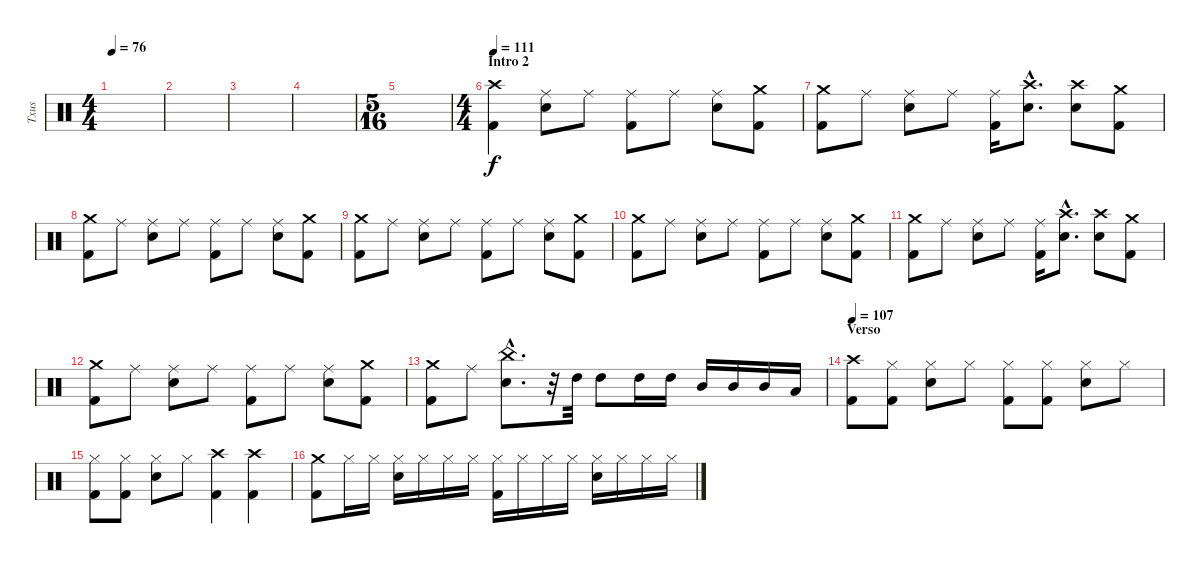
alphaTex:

\track ("Txus" "Txus") {instrument percussion}
\staff {score}
\articulation defaults
\ts (4 4)
\tempo 76
\clef neutral
\ks c
|
|
|
|
\ts (5 16)
|
\ts (4 4)
\section ("" "Intro 2")
\tempo 111
("Kick (hit) 2" "Crash high (hit)").4 ("Electric Snare (hit)" "Ride (middle)").8 "Ride (middle)".8 ("Kick (hit) 2" "Ride (middle)").8 "Ride (middle)".8 ("Electric Snare (hit)" "Ride (middle)").8 ("Kick (hit) 2" "Crash medium (hit)").8 |
("Kick (hit) 2" "Crash medium (hit)").8 "Ride (middle)".8 ("Electric Snare (hit)" "Ride (middle)").8 "Ride (middle)".8 ("Kick (hit) 2" "Ride (middle)").16 ("Electric Snare (hit)"{hac} "Crash high (hit)"{hac}).8{d} ("Electric Snare (hit)" "Crash high (hit)").8 ("Kick (hit) 2" "Crash medium (hit)").8 |
("Kick (hit) 2" "Crash medium (hit)").8 "Ride (middle)".8 ("Electric Snare (hit)" "Ride (middle)").8 "Ride (middle)".8 ("Kick (hit) 2" "Ride (middle)").8 "Ride (middle)".8 ("Electric Snare (hit)" "Ride (middle)").8 ("Kick (hit) 2" "Crash medium (hit)").8 |
("Kick (hit) 2" "Crash medium (hit)").8 "Ride (middle)".8 ("Electric Snare (hit)" "Ride (middle)").8 "Ride (middle)".8 ("Kick (hit) 2" "Ride (middle)").8 "Ride (middle)".8 ("Electric Snare (hit)" "Ride (middle)").8 ("Kick (hit) 2" "Crash medium (hit)").8 |
("Kick (hit) 2" "Crash medium (hit)").8 "Ride (middle)".8 ("Electric Snare (hit)" "Ride (middle)").8 "Ride (middle)".8 ("Kick (hit) 2" "Ride (middle)").8 "Ride (middle)".8 ("Electric Snare (hit)" "Ride (middle)").8 ("Kick (hit) 2" "Crash medium (hit)").8 |
("Kick (hit) 2" "Crash medium (hit)").8 "Ride (middle)".8 ("Electric Snare (hit)" "Ride (middle)").8 "Ride (middle)".8 ("Kick (hit) 2" "Ride (middle)").16 ("Electric Snare (hit)"{hac} "Crash high (hit)"{hac}).8{d} ("Electric Snare (hit)" "Crash high (hit)").8 ("Kick (hit) 2" "Crash medium (hit)").8 |
("Kick (hit) 2" "Crash medium (hit)").8 "Ride (middle)".8 ("Electric Snare (hit)" "Ride (middle)").8 "Ride (middle)".8 ("Kick (hit) 2" "Ride (middle)").8 "Ride (middle)".8 ("Electric Snare (hit)" "Ride (middle)").8 ("Kick (hit) 2" "Crash medium (hit)").8 |
("Kick (hit) 2" "Crash medium (hit)").8 "Ride (middle)".8 ("Electric Snare (hit)"{hac} "China (hit)"{hac}).8{d} r.32 "High Tom (hit)".32 "High Tom (hit)".8 "High Tom (hit)".16 "High Tom (hit)".16 "Mid Tom (hit)".16 "Mid Tom (hit)".16 "Mid Tom (hit)".16 "Low Tom (hit)".16 |
\section ("" "Verso")
\tempo 107
("Kick (hit) 2" "Crash high (hit)").8 ("Kick (hit) 2" "Hi-Hat (closed)").8 ("Electric Snare (hit)" "Hi-Hat (closed)").8 "Hi-Hat (closed)".8 ("Kick (hit) 2" "Hi-Hat (closed)").8 ("Kick (hit) 2" "Hi-Hat (closed)").8 ("Electric Snare (hit)" "Hi-Hat (closed)").8 "Hi-Hat (closed)".8 |
("Kick (hit) 2" "Hi-Hat (closed)").8 ("Kick (hit) 2" "Hi-Hat (closed)").8 ("Electric Snare (hit)" "Hi-Hat (closed)").8 "Hi-Hat (closed)".8 ("Kick (hit) 2" "Crash high (hit)").4 ("Kick (hit) 2" "Crash high (hit)").4 |
("Kick (hit) 2" "Crash medium (hit)").8 "Hi-Hat (closed)".16 "Hi-Hat (closed)".16 ("Electric Snare (hit)" "Hi-Hat (closed)").16 "Hi-Hat (closed)".16 "Hi-Hat (closed)".16 "Hi-Hat (closed)".16 ("Kick (hit) 2" "Hi-Hat (closed)").16 "Hi-Hat (closed)".16 "Hi-Hat (closed)".16 "Hi-Hat (closed)".16 ("Electric Snare (hit)" "Hi-Hat (closed)").16 "Hi-Hat (closed)".16 "Hi-Hat (closed)".16 "Hi-Hat (closed)".16
